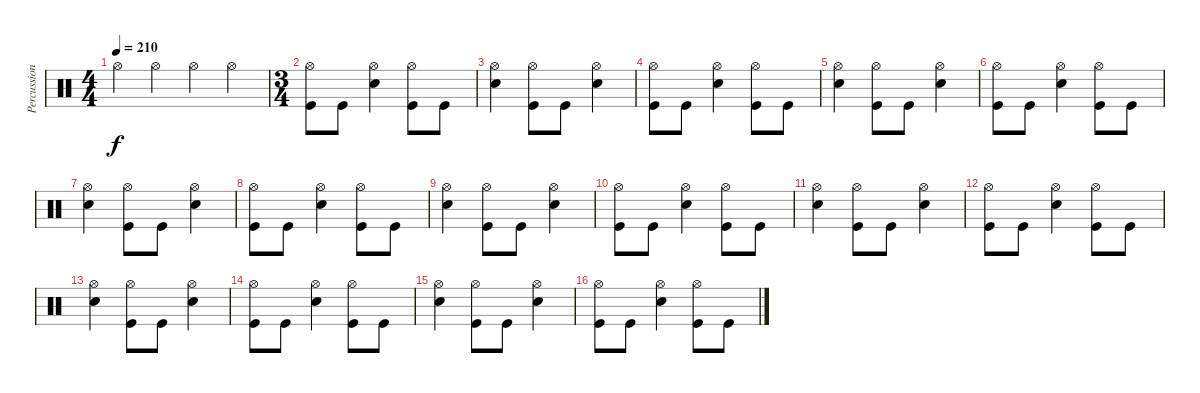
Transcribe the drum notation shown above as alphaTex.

\track ("Percussion" "Percussion") {instrument percussion}
\staff {score}
\articulation defaults
\ts (4 4)
\tempo 210
\clef neutral
\ks c "Hi-Hat (open)".4{dy f} "Hi-Hat (open)".4 "Hi-Hat (open)".4 "Hi-Hat (open)".4
|
\ts (3 4)
("Hi-Hat (open)" "Kick (hit)").8 "Kick (hit)".8 ("Hi-Hat (open)" "Snare (hit) 2").4 ("Hi-Hat (open)" "Kick (hit)").8 "Kick (hit)".8 |
("Hi-Hat (open)" "Snare (hit) 2").4 ("Hi-Hat (open)" "Kick (hit)").8 "Kick (hit)".8 ("Hi-Hat (open)" "Snare (hit) 2").4 |
("Hi-Hat (open)" "Kick (hit)").8 "Kick (hit)".8 ("Hi-Hat (open)" "Snare (hit) 2").4 ("Hi-Hat (open)" "Kick (hit)").8 "Kick (hit)".8 |
("Hi-Hat (open)" "Snare (hit) 2").4 ("Hi-Hat (open)" "Kick (hit)").8 "Kick (hit)".8 ("Hi-Hat (open)" "Snare (hit) 2").4 |
("Hi-Hat (open)" "Kick (hit)").8 "Kick (hit)".8 ("Hi-Hat (open)" "Snare (hit) 2").4 ("Hi-Hat (open)" "Kick (hit)").8 "Kick (hit)".8 |
("Hi-Hat (open)" "Snare (hit) 2").4 ("Hi-Hat (open)" "Kick (hit)").8 "Kick (hit)".8 ("Hi-Hat (open)" "Snare (hit) 2").4 |
("Hi-Hat (open)" "Kick (hit)").8 "Kick (hit)".8 ("Hi-Hat (open)" "Snare (hit) 2").4 ("Hi-Hat (open)" "Kick (hit)").8 "Kick (hit)".8 |
("Hi-Hat (open)" "Snare (hit) 2").4 ("Hi-Hat (open)" "Kick (hit)").8 "Kick (hit)".8 ("Hi-Hat (open)" "Snare (hit) 2").4 |
("Hi-Hat (open)" "Kick (hit)").8 "Kick (hit)".8 ("Hi-Hat (open)" "Snare (hit) 2").4 ("Hi-Hat (open)" "Kick (hit)").8 "Kick (hit)".8 |
("Hi-Hat (open)" "Snare (hit) 2").4 ("Hi-Hat (open)" "Kick (hit)").8 "Kick (hit)".8 ("Hi-Hat (open)" "Snare (hit) 2").4 |
("Hi-Hat (open)" "Kick (hit)").8 "Kick (hit)".8 ("Hi-Hat (open)" "Snare (hit) 2").4 ("Hi-Hat (open)" "Kick (hit)").8 "Kick (hit)".8 |
("Hi-Hat (open)" "Snare (hit) 2").4 ("Hi-Hat (open)" "Kick (hit)").8 "Kick (hit)".8 ("Hi-Hat (open)" "Snare (hit) 2").4 |
("Hi-Hat (open)" "Kick (hit)").8 "Kick (hit)".8 ("Hi-Hat (open)" "Snare (hit) 2").4 ("Hi-Hat (open)" "Kick (hit)").8 "Kick (hit)".8 |
("Hi-Hat (open)" "Snare (hit) 2").4 ("Hi-Hat (open)" "Kick (hit)").8 "Kick (hit)".8 ("Hi-Hat (open)" "Snare (hit) 2").4 |
("Hi-Hat (open)" "Kick (hit)").8 "Kick (hit)".8 ("Hi-Hat (open)" "Snare (hit) 2").4 ("Hi-Hat (open)" "Kick (hit)").8 "Kick (hit)".8
